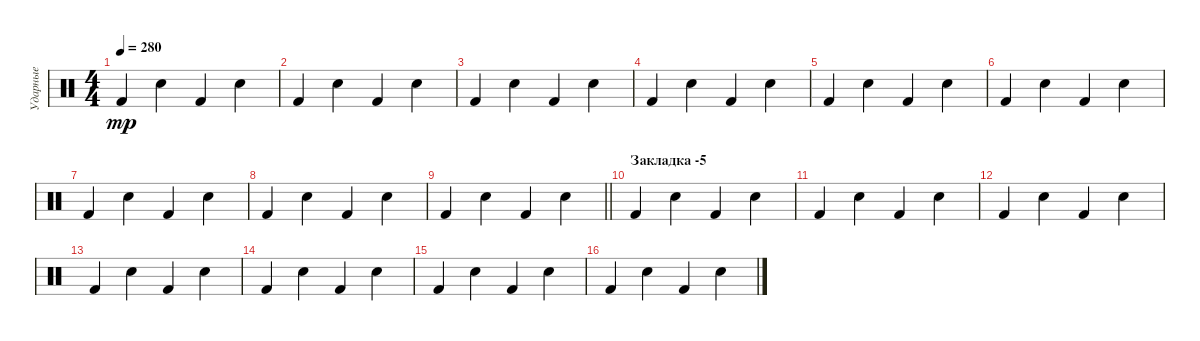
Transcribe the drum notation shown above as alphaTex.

\track ("Ударные" "Ударные") {instrument percussion}
\staff {score}
\articulation defaults
\ts (4 4)
\tempo 280
\clef neutral
\ks c "Kick (hit) 2".4{dy mp} "Snare (hit) 2".4 "Kick (hit) 2".4 "Snare (hit) 2".4
|
"Kick (hit) 2".4 "Snare (hit) 2".4 "Kick (hit) 2".4 "Snare (hit) 2".4 |
"Kick (hit) 2".4 "Snare (hit) 2".4 "Kick (hit) 2".4 "Snare (hit) 2".4 |
"Kick (hit) 2".4 "Snare (hit) 2".4 "Kick (hit) 2".4 "Snare (hit) 2".4 |
"Kick (hit) 2".4 "Snare (hit) 2".4 "Kick (hit) 2".4 "Snare (hit) 2".4 |
"Kick (hit) 2".4 "Snare (hit) 2".4 "Kick (hit) 2".4 "Snare (hit) 2".4 |
"Kick (hit) 2".4 "Snare (hit) 2".4 "Kick (hit) 2".4 "Snare (hit) 2".4 |
"Kick (hit) 2".4 "Snare (hit) 2".4 "Kick (hit) 2".4 "Snare (hit) 2".4 |
\barLineRight lightlight "Kick (hit) 2".4 "Snare (hit) 2".4 "Kick (hit) 2".4 "Snare (hit) 2".4
|
\section ("" "Закладка -5")
"Kick (hit) 2".4 "Snare (hit) 2".4 "Kick (hit) 2".4 "Snare (hit) 2".4 |
"Kick (hit) 2".4 "Snare (hit) 2".4 "Kick (hit) 2".4 "Snare (hit) 2".4 |
"Kick (hit) 2".4 "Snare (hit) 2".4 "Kick (hit) 2".4 "Snare (hit) 2".4 |
"Kick (hit) 2".4 "Snare (hit) 2".4 "Kick (hit) 2".4 "Snare (hit) 2".4 |
"Kick (hit) 2".4 "Snare (hit) 2".4 "Kick (hit) 2".4 "Snare (hit) 2".4 |
"Kick (hit) 2".4 "Snare (hit) 2".4 "Kick (hit) 2".4 "Snare (hit) 2".4 |
"Kick (hit) 2".4 "Snare (hit) 2".4 "Kick (hit) 2".4 "Snare (hit) 2".4
